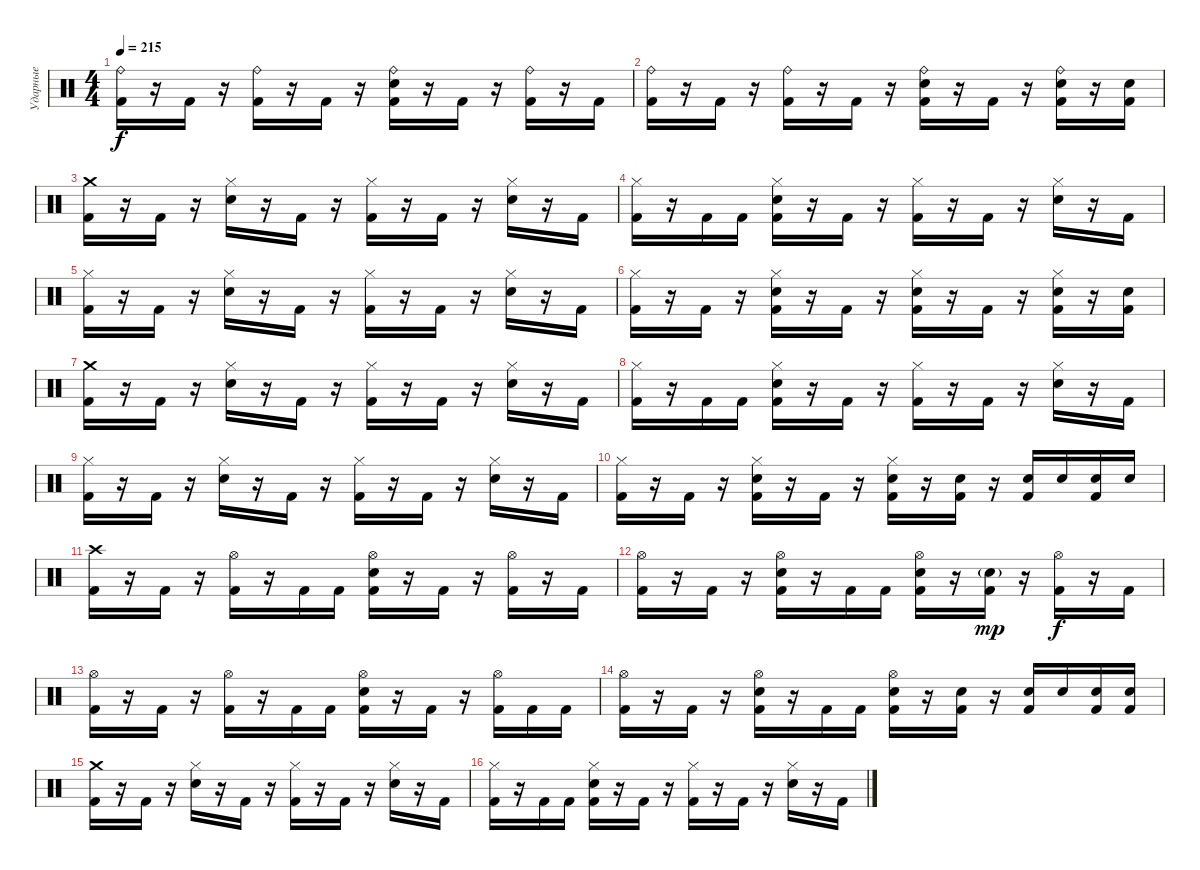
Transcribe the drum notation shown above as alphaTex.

\track ("Ударные" "Ударные") {instrument percussion}
\staff {score}
\articulation defaults
\ts (4 4)
\tempo 215
\clef neutral
\ks c
("Ride (bell)" "Kick (hit) 2").16{dy f} r.16 "Kick (hit) 2".16 r.16 ("Ride (bell)" "Kick (hit) 2").16 r.16 "Kick (hit) 2".16 r.16 ("Ride (bell)" "Snare (hit) 2" "Kick (hit) 2").16 r.16 "Kick (hit) 2".16 r.16 ("Ride (bell)" "Kick (hit) 2").16 r.16 "Kick (hit) 2".16 |
("Ride (bell)" "Kick (hit) 2").16 r.16 "Kick (hit) 2".16 r.16 ("Ride (bell)" "Kick (hit) 2").16 r.16 "Kick (hit) 2".16 r.16 ("Ride (bell)" "Snare (hit) 2" "Kick (hit) 2").16 r.16 "Kick (hit) 2".16 r.16 ("Ride (bell)" "Snare (hit) 2" "Kick (hit) 2").16 r.16 ("Snare (hit) 2" "Kick (hit) 2").16 |
("Crash medium (hit)" "Kick (hit) 2").16 r.16 "Kick (hit) 2".16 r.16 ("Hi-Hat (closed)" "Snare (hit) 2").16 r.16 "Kick (hit) 2".16 r.16 ("Hi-Hat (closed)" "Kick (hit) 2").16 r.16 "Kick (hit) 2".16 r.16 ("Hi-Hat (closed)" "Snare (hit) 2").16 r.16 "Kick (hit) 2".16 |
("Hi-Hat (closed)" "Kick (hit) 2").16 r.16 "Kick (hit) 2".16 "Kick (hit) 2".16 ("Hi-Hat (closed)" "Snare (hit) 2" "Kick (hit) 2").16 r.16 "Kick (hit) 2".16 r.16 ("Hi-Hat (closed)" "Kick (hit) 2").16 r.16 "Kick (hit) 2".16 r.16 ("Hi-Hat (closed)" "Snare (hit) 2").16 r.16 "Kick (hit) 2".16 |
("Hi-Hat (closed)" "Kick (hit) 2").16 r.16 "Kick (hit) 2".16 r.16 ("Hi-Hat (closed)" "Snare (hit) 2").16 r.16 "Kick (hit) 2".16 r.16 ("Hi-Hat (closed)" "Kick (hit) 2").16 r.16 "Kick (hit) 2".16 r.16 ("Hi-Hat (closed)" "Snare (hit) 2").16 r.16 "Kick (hit) 2".16 |
("Hi-Hat (closed)" "Kick (hit) 2").16 r.16 "Kick (hit) 2".16 r.16 ("Hi-Hat (closed)" "Snare (hit) 2" "Kick (hit) 2").16 r.16 "Kick (hit) 2".16 r.16 ("Hi-Hat (closed)" "Snare (hit) 2" "Kick (hit) 2").16 r.16 "Kick (hit) 2".16 r.16 ("Hi-Hat (closed)" "Snare (hit) 2" "Kick (hit) 2").16 r.16 ("Snare (hit) 2" "Kick (hit) 2").16 |
("Crash medium (hit)" "Kick (hit) 2").16 r.16 "Kick (hit) 2".16 r.16 ("Hi-Hat (closed)" "Snare (hit) 2").16 r.16 "Kick (hit) 2".16 r.16 ("Hi-Hat (closed)" "Kick (hit) 2").16 r.16 "Kick (hit) 2".16 r.16 ("Hi-Hat (closed)" "Snare (hit) 2").16 r.16 "Kick (hit) 2".16 |
("Hi-Hat (closed)" "Kick (hit) 2").16 r.16 "Kick (hit) 2".16 "Kick (hit) 2".16 ("Hi-Hat (closed)" "Snare (hit) 2" "Kick (hit) 2").16 r.16 "Kick (hit) 2".16 r.16 ("Hi-Hat (closed)" "Kick (hit) 2").16 r.16 "Kick (hit) 2".16 r.16 ("Hi-Hat (closed)" "Snare (hit) 2").16 r.16 "Kick (hit) 2".16 |
("Hi-Hat (closed)" "Kick (hit) 2").16 r.16 "Kick (hit) 2".16 r.16 ("Hi-Hat (closed)" "Snare (hit) 2").16 r.16 "Kick (hit) 2".16 r.16 ("Hi-Hat (closed)" "Kick (hit) 2").16 r.16 "Kick (hit) 2".16 r.16 ("Hi-Hat (closed)" "Snare (hit) 2").16 r.16 "Kick (hit) 2".16 |
("Hi-Hat (closed)" "Kick (hit) 2").16 r.16 "Kick (hit) 2".16 r.16 ("Hi-Hat (closed)" "Snare (hit) 2" "Kick (hit) 2").16 r.16 "Kick (hit) 2".16 r.16 ("Hi-Hat (closed)" "Snare (hit) 2" "Kick (hit) 2").16 r.16 ("Snare (hit) 2" "Kick (hit) 2").16 r.16 ("Snare (hit) 2" "Kick (hit) 2").16 "Snare (hit) 2".16 ("Snare (hit) 2" "Kick (hit) 2").16 "Snare (hit) 2".16 |
("Crash high (hit)" "Kick (hit) 2").16 r.16 "Kick (hit) 2".16 r.16 ("Hi-Hat (open)" "Kick (hit) 2").16 r.16 "Kick (hit) 2".16 "Kick (hit) 2".16 ("Hi-Hat (open)" "Snare (hit) 2" "Kick (hit) 2").16 r.16 "Kick (hit) 2".16 r.16 ("Hi-Hat (open)" "Kick (hit) 2").16 r.16 "Kick (hit) 2".16 |
("Hi-Hat (open)" "Kick (hit) 2").16 r.16 "Kick (hit) 2".16 r.16 ("Hi-Hat (open)" "Snare (hit) 2" "Kick (hit) 2").16 r.16 "Kick (hit) 2".16 "Kick (hit) 2".16 ("Hi-Hat (open)" "Snare (hit) 2" "Kick (hit) 2").16 r.16 ("Snare (hit) 2"{g} "Kick (hit) 2").16{dy mp} r.16 ("Hi-Hat (open)" "Kick (hit) 2").16{dy f} r.16 "Kick (hit) 2".16 |
("Hi-Hat (open)" "Kick (hit) 2").16 r.16 "Kick (hit) 2".16 r.16 ("Hi-Hat (open)" "Kick (hit) 2").16 r.16 "Kick (hit) 2".16 "Kick (hit) 2".16 ("Hi-Hat (open)" "Snare (hit) 2" "Kick (hit) 2").16 r.16 "Kick (hit) 2".16 r.16 ("Hi-Hat (open)" "Kick (hit) 2").16 "Kick (hit) 2".16 "Kick (hit) 2".16 |
("Hi-Hat (open)" "Kick (hit) 2").16 r.16 "Kick (hit) 2".16 r.16 ("Hi-Hat (open)" "Snare (hit) 2" "Kick (hit) 2").16 r.16 "Kick (hit) 2".16 "Kick (hit) 2".16 ("Hi-Hat (open)" "Snare (hit) 2" "Kick (hit) 2").16 r.16 ("Snare (hit) 2" "Kick (hit) 2").16 r.16 ("Snare (hit) 2" "Kick (hit) 2").16 "Snare (hit) 2".16 ("Snare (hit) 2" "Kick (hit) 2").16 ("Snare (hit) 2" "Kick (hit) 2").16 |
("Crash medium (hit)" "Kick (hit) 2").16 r.16 "Kick (hit) 2".16 r.16 ("Hi-Hat (closed)" "Snare (hit) 2").16 r.16 "Kick (hit) 2".16 r.16 ("Hi-Hat (closed)" "Kick (hit) 2").16 r.16 "Kick (hit) 2".16 r.16 ("Hi-Hat (closed)" "Snare (hit) 2").16 r.16 "Kick (hit) 2".16 |
("Hi-Hat (closed)" "Kick (hit) 2").16 r.16 "Kick (hit) 2".16 "Kick (hit) 2".16 ("Hi-Hat (closed)" "Snare (hit) 2" "Kick (hit) 2").16 r.16 "Kick (hit) 2".16 r.16 ("Hi-Hat (closed)" "Kick (hit) 2").16 r.16 "Kick (hit) 2".16 r.16 ("Hi-Hat (closed)" "Snare (hit) 2").16 r.16 "Kick (hit) 2".16
